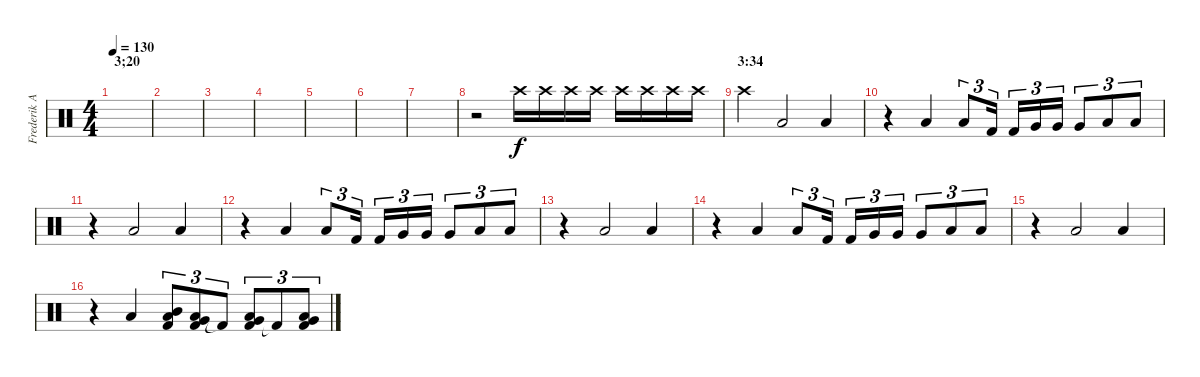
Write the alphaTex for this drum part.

\track ("Frederik Anderson" "Frederik A") {instrument percussion}
\staff {score}
\articulation defaults
\ts (4 4)
\section ("" "3;20")
\tempo 130
\clef neutral
\ks c
|
|
|
|
|
|
|
r.2{volume 0} "Crash high (hit)".16{volume 13} "Crash high (hit)".16 "Crash high (hit)".16 "Crash high (hit)".16 "Crash high (hit)".16 "Crash high (hit)".16 "Crash high (hit)".16 "Crash high (hit)".16 |
\section ("" "3:34")
"Crash high (hit)".4 "Low Floor Tom (hit)".2 "Low Floor Tom (hit)".4 |
r.4 "Low Floor Tom (hit)".4 "Low Floor Tom (hit)".8{tu (3 2)} "Kick (hit) 2".16{tu (3 2)} "Kick (hit) 2".16{tu (3 2)} "Very Low Tom (hit)".16{tu (3 2)} "Very Low Tom (hit)".16{tu (3 2)} "Very Low Tom (hit)".8{tu (3 2)} "Low Floor Tom (hit)".8{tu (3 2)} "Low Floor Tom (hit)".8{tu (3 2)} |
r.4 "Low Floor Tom (hit)".2 "Low Floor Tom (hit)".4 |
r.4 "Low Floor Tom (hit)".4 "Low Floor Tom (hit)".8{tu (3 2)} "Kick (hit) 2".16{tu (3 2)} "Kick (hit) 2".16{tu (3 2)} "Very Low Tom (hit)".16{tu (3 2)} "Very Low Tom (hit)".16{tu (3 2)} "Very Low Tom (hit)".8{tu (3 2)} "Low Floor Tom (hit)".8{tu (3 2)} "Low Floor Tom (hit)".8{tu (3 2)} |
r.4 "Low Floor Tom (hit)".2 "Low Floor Tom (hit)".4 |
r.4 "Low Floor Tom (hit)".4 "Low Floor Tom (hit)".8{tu (3 2)} "Kick (hit) 2".16{tu (3 2)} "Kick (hit) 2".16{tu (3 2)} "Very Low Tom (hit)".16{tu (3 2)} "Very Low Tom (hit)".16{tu (3 2)} "Very Low Tom (hit)".8{tu (3 2)} "Low Floor Tom (hit)".8{tu (3 2)} "Low Floor Tom (hit)".8{tu (3 2)} |
r.4 "Low Floor Tom (hit)".2 "Low Floor Tom (hit)".4 |
r.4 "Low Floor Tom (hit)".4 ("Mid Tom (hit)" "Low Tom (hit)" "Kick (hit) 2").8{tu (3 2)} ("Low Tom (hit)" "Very Low Tom (hit)" "Kick (hit) 2").8{tu (3 2)} "Kick (hit) 2"{t}.8{tu (3 2)} ("Very Low Tom (hit)" "Low Floor Tom (hit)" "Kick (hit) 2").8{tu (3 2)} "Kick (hit) 2"{t}.8{tu (3 2)} ("Very Low Tom (hit)" "Low Floor Tom (hit)" "Kick (hit) 2").8{tu (3 2)}
